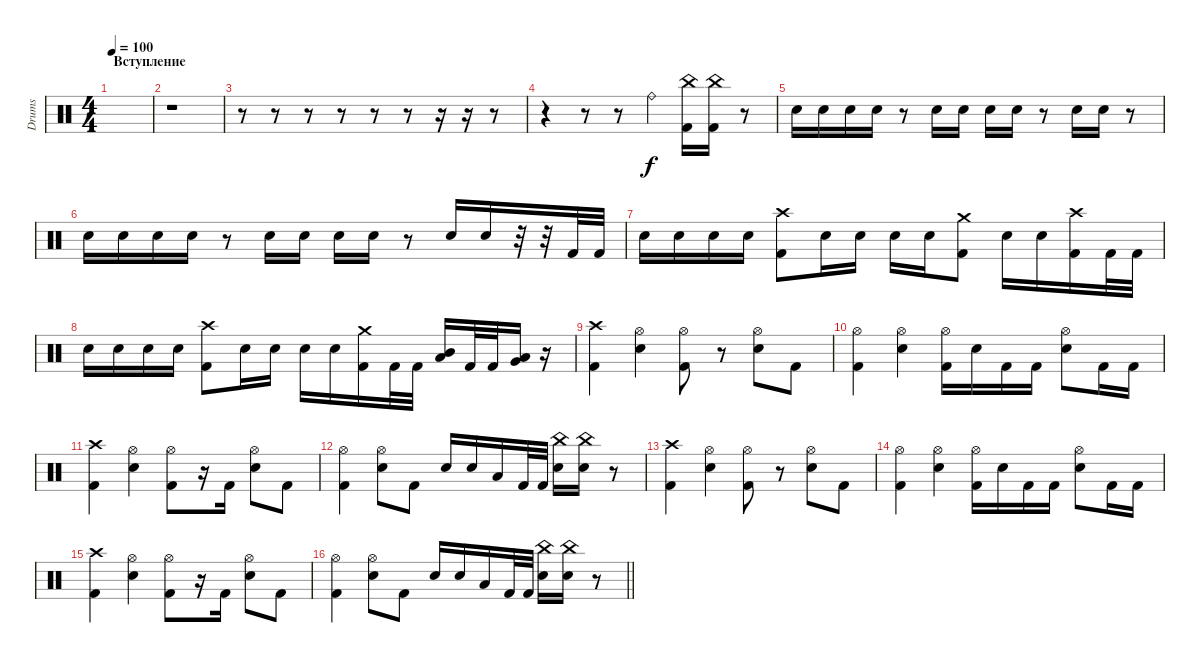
\track ("Drums" "Drums") {instrument percussion}
\staff {score}
\articulation defaults
\ts (4 4)
\section ("" "Вступление")
\tempo 100
\clef neutral
\ks c
|
r.1 |
r.8 r.8 r.8 r.8 r.8 r.8 r.16 r.16 r.8 |
r.4 r.8 r.8 "Ride (bell)".4 ("China (hit)" "Kick (hit) 2").16 ("China (hit)" "Kick (hit) 2").16 r.8 |
"Snare (hit) 2".16 "Snare (hit) 2".16 "Snare (hit) 2".16 "Snare (hit) 2".16 r.8 "Snare (hit) 2".16 "Snare (hit) 2".16 "Snare (hit) 2".16 "Snare (hit) 2".16 r.8 "Snare (hit) 2".16 "Snare (hit) 2".16 r.8 |
"Snare (hit) 2".16 "Snare (hit) 2".16 "Snare (hit) 2".16 "Snare (hit) 2".16 r.8 "Snare (hit) 2".16 "Snare (hit) 2".16 "Snare (hit) 2".16 "Snare (hit) 2".16 r.8 "Snare (hit) 2".16 "Snare (hit) 2".16 r.32 r.32 "Kick (hit) 2".32 "Kick (hit) 2".32 |
"Snare (hit) 2".16 "Snare (hit) 2".16 "Snare (hit) 2".16 "Snare (hit) 2".16 ("Crash high (hit)" "Kick (hit) 2").8 "Snare (hit) 2".16 "Snare (hit) 2".16 "Snare (hit) 2".16 "Snare (hit) 2".16 ("Crash medium (hit)" "Kick (hit) 2").8 "Snare (hit) 2".16 "Snare (hit) 2".16 ("Crash high (hit)" "Kick (hit) 2").16 "Kick (hit) 2".32 "Kick (hit) 2".32 |
"Snare (hit) 2".16 "Snare (hit) 2".16 "Snare (hit) 2".16 "Snare (hit) 2".16 ("Crash high (hit)" "Kick (hit) 2").8 "Snare (hit) 2".16 "Snare (hit) 2".16 "Snare (hit) 2".16 "Snare (hit) 2".16 ("Crash medium (hit)" "Kick (hit) 2").16 "Kick (hit) 2".32 "Kick (hit) 2".32 ("Mid Tom (hit)" "Low Tom (hit)").16 "Kick (hit) 2".32 "Kick (hit) 2".32 ("Very Low Tom (hit)" "Low Floor Tom (hit)").16 r.16 |
("Crash high (hit)" "Kick (hit) 2").4 ("Hi-Hat (open)" "Snare (hit) 2").4 ("Hi-Hat (open)" "Kick (hit) 2").8 r.8 ("Hi-Hat (open)" "Snare (hit) 2").8 "Kick (hit) 2".8 |
("Hi-Hat (open)" "Kick (hit) 2").4 ("Hi-Hat (open)" "Snare (hit) 2").4 ("Hi-Hat (open)" "Kick (hit) 2").16 "Snare (hit) 2".16 "Kick (hit) 2".16 "Kick (hit) 2".16 ("Hi-Hat (open)" "Snare (hit) 2").8 "Kick (hit) 2".16 "Kick (hit) 2".16 |
("Crash high (hit)" "Kick (hit) 2").4 ("Hi-Hat (open)" "Snare (hit) 2").4 ("Hi-Hat (open)" "Kick (hit) 2").8 r.16 "Kick (hit) 2".16 ("Hi-Hat (open)" "Snare (hit) 2").8 "Kick (hit) 2".8 |
("Hi-Hat (open)" "Kick (hit) 2").4 ("Hi-Hat (open)" "Snare (hit) 2").8 "Kick (hit) 2".8 "Snare (hit) 2".16 "Snare (hit) 2".16 "Low Tom (hit)".16 "Kick (hit) 2".32 "Kick (hit) 2".32 ("China (hit)" "Snare (hit) 2").16 ("China (hit)" "Snare (hit) 2").16 r.8 |
("Crash high (hit)" "Kick (hit) 2").4 ("Hi-Hat (open)" "Snare (hit) 2").4 ("Hi-Hat (open)" "Kick (hit) 2").8 r.8 ("Hi-Hat (open)" "Snare (hit) 2").8 "Kick (hit) 2".8 |
("Hi-Hat (open)" "Kick (hit) 2").4 ("Hi-Hat (open)" "Snare (hit) 2").4 ("Hi-Hat (open)" "Kick (hit) 2").16 "Snare (hit) 2".16 "Kick (hit) 2".16 "Kick (hit) 2".16 ("Hi-Hat (open)" "Snare (hit) 2").8 "Kick (hit) 2".16 "Kick (hit) 2".16 |
("Crash high (hit)" "Kick (hit) 2").4 ("Hi-Hat (open)" "Snare (hit) 2").4 ("Hi-Hat (open)" "Kick (hit) 2").8 r.16 "Kick (hit) 2".16 ("Hi-Hat (open)" "Snare (hit) 2").8 "Kick (hit) 2".8 |
\barLineRight lightlight
("Hi-Hat (open)" "Kick (hit) 2").4 ("Hi-Hat (open)" "Snare (hit) 2").8 "Kick (hit) 2".8 "Snare (hit) 2".16 "Snare (hit) 2".16 "Low Tom (hit)".16 "Kick (hit) 2".32 "Kick (hit) 2".32 ("China (hit)" "Snare (hit) 2").16 ("China (hit)" "Snare (hit) 2").16 r.8
